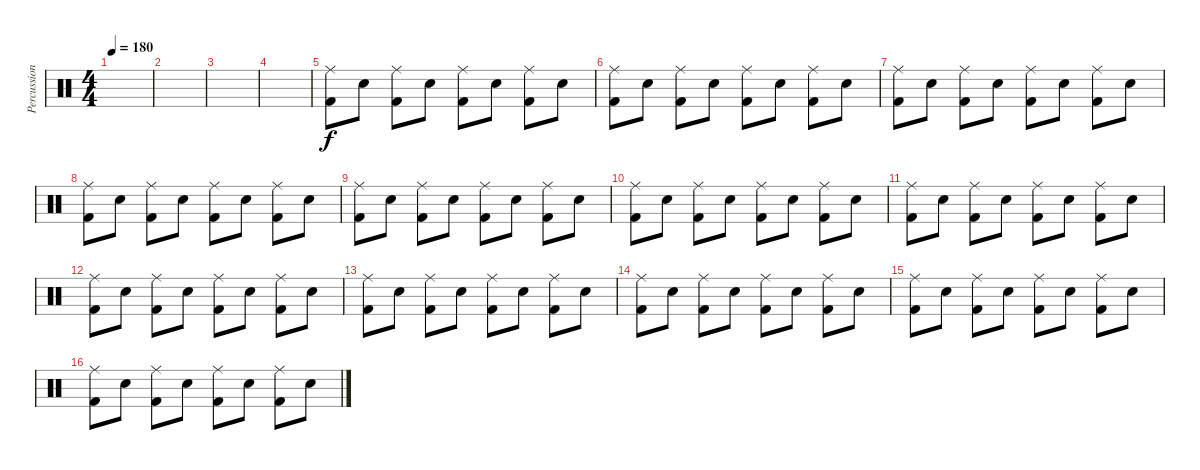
\track ("Percussion" "Percussion") {instrument percussion}
\staff {score}
\articulation defaults
\ts (4 4)
\tempo 180
\clef neutral
\ks c
|
|
|
|
("Ride (middle)" "Kick (hit) 2").8 "Electric Snare (hit)".8 ("Ride (middle)" "Kick (hit) 2").8 "Electric Snare (hit)".8 ("Ride (middle)" "Kick (hit) 2").8 "Electric Snare (hit)".8 ("Ride (middle)" "Kick (hit) 2").8 "Electric Snare (hit)".8 |
("Ride (middle)" "Kick (hit) 2").8 "Electric Snare (hit)".8 ("Ride (middle)" "Kick (hit) 2").8 "Electric Snare (hit)".8 ("Ride (middle)" "Kick (hit) 2").8 "Electric Snare (hit)".8 ("Ride (middle)" "Kick (hit) 2").8 "Electric Snare (hit)".8 |
("Ride (middle)" "Kick (hit) 2").8 "Electric Snare (hit)".8 ("Ride (middle)" "Kick (hit) 2").8 "Electric Snare (hit)".8 ("Ride (middle)" "Kick (hit) 2").8 "Electric Snare (hit)".8 ("Ride (middle)" "Kick (hit) 2").8 "Electric Snare (hit)".8 |
("Ride (middle)" "Kick (hit) 2").8 "Electric Snare (hit)".8 ("Ride (middle)" "Kick (hit) 2").8 "Electric Snare (hit)".8 ("Ride (middle)" "Kick (hit) 2").8 "Electric Snare (hit)".8 ("Ride (middle)" "Kick (hit) 2").8 "Electric Snare (hit)".8 |
("Ride (middle)" "Kick (hit) 2").8 "Electric Snare (hit)".8 ("Ride (middle)" "Kick (hit) 2").8 "Electric Snare (hit)".8 ("Ride (middle)" "Kick (hit) 2").8 "Electric Snare (hit)".8 ("Ride (middle)" "Kick (hit) 2").8 "Electric Snare (hit)".8 |
("Ride (middle)" "Kick (hit) 2").8 "Electric Snare (hit)".8 ("Ride (middle)" "Kick (hit) 2").8 "Electric Snare (hit)".8 ("Ride (middle)" "Kick (hit) 2").8 "Electric Snare (hit)".8 ("Ride (middle)" "Kick (hit) 2").8 "Electric Snare (hit)".8 |
("Ride (middle)" "Kick (hit) 2").8 "Electric Snare (hit)".8 ("Ride (middle)" "Kick (hit) 2").8 "Electric Snare (hit)".8 ("Ride (middle)" "Kick (hit) 2").8 "Electric Snare (hit)".8 ("Ride (middle)" "Kick (hit) 2").8 "Electric Snare (hit)".8 |
("Ride (middle)" "Kick (hit) 2").8 "Electric Snare (hit)".8 ("Ride (middle)" "Kick (hit) 2").8 "Electric Snare (hit)".8 ("Ride (middle)" "Kick (hit) 2").8 "Electric Snare (hit)".8 ("Ride (middle)" "Kick (hit) 2").8 "Electric Snare (hit)".8 |
("Ride (middle)" "Kick (hit) 2").8 "Electric Snare (hit)".8 ("Ride (middle)" "Kick (hit) 2").8 "Electric Snare (hit)".8 ("Ride (middle)" "Kick (hit) 2").8 "Electric Snare (hit)".8 ("Ride (middle)" "Kick (hit) 2").8 "Electric Snare (hit)".8 |
("Ride (middle)" "Kick (hit) 2").8 "Electric Snare (hit)".8 ("Ride (middle)" "Kick (hit) 2").8 "Electric Snare (hit)".8 ("Ride (middle)" "Kick (hit) 2").8 "Electric Snare (hit)".8 ("Ride (middle)" "Kick (hit) 2").8 "Electric Snare (hit)".8 |
("Ride (middle)" "Kick (hit) 2").8 "Electric Snare (hit)".8 ("Ride (middle)" "Kick (hit) 2").8 "Electric Snare (hit)".8 ("Ride (middle)" "Kick (hit) 2").8 "Electric Snare (hit)".8 ("Ride (middle)" "Kick (hit) 2").8 "Electric Snare (hit)".8 |
("Ride (middle)" "Kick (hit) 2").8 "Electric Snare (hit)".8 ("Ride (middle)" "Kick (hit) 2").8 "Electric Snare (hit)".8 ("Ride (middle)" "Kick (hit) 2").8 "Electric Snare (hit)".8 ("Ride (middle)" "Kick (hit) 2").8 "Electric Snare (hit)".8
